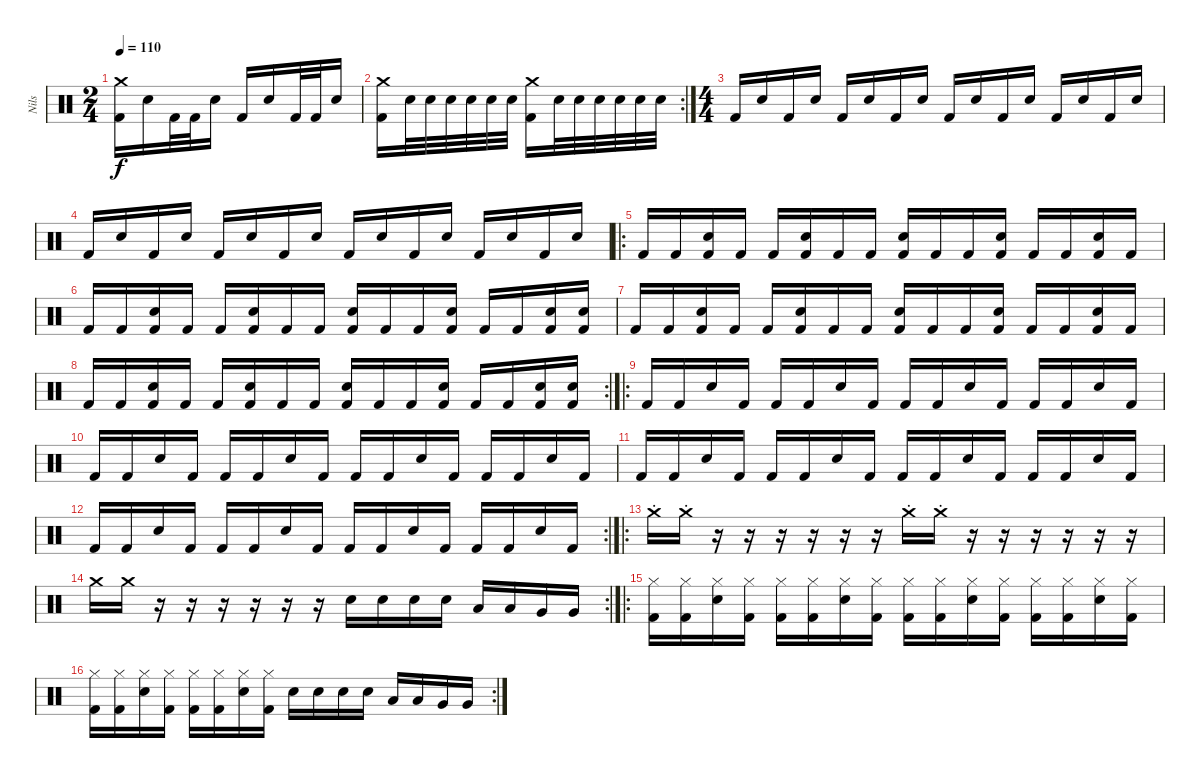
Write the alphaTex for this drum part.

\track ("Nils" "Nils") {instrument percussion}
\staff {score}
\articulation defaults
\ts (2 4)
\tempo 110
\clef neutral
\ks c
("Crash medium (hit)" "Kick (hit) 2").16{dy f} "Snare (hit) 2".16 "Kick (hit) 2".32 "Kick (hit) 2".32 "Snare (hit) 2".16 "Kick (hit) 2".16 "Snare (hit) 2".16 "Kick (hit) 2".32 "Kick (hit) 2".32 "Snare (hit) 2".16 |
\rc 2
("Crash medium (hit)" "Kick (hit) 2").16 "Snare (hit) 2".32 "Snare (hit) 2".32 "Snare (hit) 2".32 "Snare (hit) 2".32 "Snare (hit) 2".32 "Snare (hit) 2".32 ("Crash medium (hit)" "Kick (hit) 2").16 "Snare (hit) 2".32 "Snare (hit) 2".32 "Snare (hit) 2".32 "Snare (hit) 2".32 "Snare (hit) 2".32 "Snare (hit) 2".32 |
\ts (4 4)
"Kick (hit) 2".16 "Snare (hit) 2".16 "Kick (hit) 2".16 "Snare (hit) 2".16 "Kick (hit) 2".16 "Snare (hit) 2".16 "Kick (hit) 2".16 "Snare (hit) 2".16 "Kick (hit) 2".16 "Snare (hit) 2".16 "Kick (hit) 2".16 "Snare (hit) 2".16 "Kick (hit) 2".16 "Snare (hit) 2".16 "Kick (hit) 2".16 "Snare (hit) 2".16 |
"Kick (hit) 2".16 "Snare (hit) 2".16 "Kick (hit) 2".16 "Snare (hit) 2".16 "Kick (hit) 2".16 "Snare (hit) 2".16 "Kick (hit) 2".16 "Snare (hit) 2".16 "Kick (hit) 2".16 "Snare (hit) 2".16 "Kick (hit) 2".16 "Snare (hit) 2".16 "Kick (hit) 2".16 "Snare (hit) 2".16 "Kick (hit) 2".16 "Snare (hit) 2".16 |
\ro "Kick (hit) 2".16 "Kick (hit) 2".16
("Snare (hit) 2" "Kick (hit) 2").16 "Kick (hit) 2".16 "Kick (hit) 2".16 ("Snare (hit) 2" "Kick (hit) 2").16 "Kick (hit) 2".16 "Kick (hit) 2".16 ("Snare (hit) 2" "Kick (hit) 2").16 "Kick (hit) 2".16 "Kick (hit) 2".16 ("Snare (hit) 2" "Kick (hit) 2").16 "Kick (hit) 2".16 "Kick (hit) 2".16 ("Snare (hit) 2" "Kick (hit) 2").16 "Kick (hit) 2".16 |
"Kick (hit) 2".16 "Kick (hit) 2".16 ("Snare (hit) 2" "Kick (hit) 2").16 "Kick (hit) 2".16 "Kick (hit) 2".16 ("Snare (hit) 2" "Kick (hit) 2").16 "Kick (hit) 2".16 "Kick (hit) 2".16 ("Snare (hit) 2" "Kick (hit) 2").16 "Kick (hit) 2".16 "Kick (hit) 2".16 ("Snare (hit) 2" "Kick (hit) 2").16 "Kick (hit) 2".16 "Kick (hit) 2".16 ("Snare (hit) 2" "Kick (hit) 2").16 ("Snare (hit) 2" "Kick (hit) 2").16 |
"Kick (hit) 2".16 "Kick (hit) 2".16 ("Snare (hit) 2" "Kick (hit) 2").16 "Kick (hit) 2".16 "Kick (hit) 2".16 ("Snare (hit) 2" "Kick (hit) 2").16 "Kick (hit) 2".16 "Kick (hit) 2".16 ("Snare (hit) 2" "Kick (hit) 2").16 "Kick (hit) 2".16 "Kick (hit) 2".16 ("Snare (hit) 2" "Kick (hit) 2").16 "Kick (hit) 2".16 "Kick (hit) 2".16 ("Snare (hit) 2" "Kick (hit) 2").16 "Kick (hit) 2".16 |
\rc 2 "Kick (hit) 2".16 "Kick (hit) 2".16
("Snare (hit) 2" "Kick (hit) 2").16 "Kick (hit) 2".16 "Kick (hit) 2".16 ("Snare (hit) 2" "Kick (hit) 2").16 "Kick (hit) 2".16 "Kick (hit) 2".16 ("Snare (hit) 2" "Kick (hit) 2").16 "Kick (hit) 2".16 "Kick (hit) 2".16 ("Snare (hit) 2" "Kick (hit) 2").16 "Kick (hit) 2".16 "Kick (hit) 2".16 ("Snare (hit) 2" "Kick (hit) 2").16 ("Snare (hit) 2" "Kick (hit) 2").16 |
\ro "Kick (hit) 2".16 "Kick (hit) 2".16 "Snare (hit) 2".16 "Kick (hit) 2".16 "Kick (hit) 2".16 "Kick (hit) 2".16 "Snare (hit) 2".16 "Kick (hit) 2".16 "Kick (hit) 2".16 "Kick (hit) 2".16 "Snare (hit) 2".16 "Kick (hit) 2".16 "Kick (hit) 2".16 "Kick (hit) 2".16 "Snare (hit) 2".16 "Kick (hit) 2".16
|
"Kick (hit) 2".16 "Kick (hit) 2".16 "Snare (hit) 2".16 "Kick (hit) 2".16 "Kick (hit) 2".16 "Kick (hit) 2".16 "Snare (hit) 2".16 "Kick (hit) 2".16 "Kick (hit) 2".16 "Kick (hit) 2".16 "Snare (hit) 2".16 "Kick (hit) 2".16 "Kick (hit) 2".16 "Kick (hit) 2".16 "Snare (hit) 2".16 "Kick (hit) 2".16 |
"Kick (hit) 2".16 "Kick (hit) 2".16 "Snare (hit) 2".16 "Kick (hit) 2".16 "Kick (hit) 2".16 "Kick (hit) 2".16 "Snare (hit) 2".16 "Kick (hit) 2".16 "Kick (hit) 2".16 "Kick (hit) 2".16 "Snare (hit) 2".16 "Kick (hit) 2".16 "Kick (hit) 2".16 "Kick (hit) 2".16 "Snare (hit) 2".16 "Kick (hit) 2".16 |
\rc 2 "Kick (hit) 2".16 "Kick (hit) 2".16 "Snare (hit) 2".16 "Kick (hit) 2".16 "Kick (hit) 2".16 "Kick (hit) 2".16 "Snare (hit) 2".16 "Kick (hit) 2".16 "Kick (hit) 2".16 "Kick (hit) 2".16 "Snare (hit) 2".16 "Kick (hit) 2".16 "Kick (hit) 2".16 "Kick (hit) 2".16 "Snare (hit) 2".16 "Kick (hit) 2".16
|
\ro "Crash medium (hit)"{st}.16 "Crash medium (hit)"{st}.16
r.16 r.16 r.16 r.16 r.16 r.16 "Crash medium (hit)"{st}.16 "Crash medium (hit)"{st}.16 r.16 r.16 r.16 r.16 r.16 r.16 |
\rc 2 "Crash medium (hit)".16 "Crash medium (hit)".16
r.16 r.16 r.16 r.16 r.16 r.16 "Snare (hit) 2".16 "Snare (hit) 2".16 "Snare (hit) 2".16 "Snare (hit) 2".16 "Low Tom (hit)".16 "Low Tom (hit)".16 "Very Low Tom (hit)".16 "Very Low Tom (hit)".16 |
\ro
("Kick (hit) 2" "Hi-Hat (closed)").16 ("Kick (hit) 2" "Hi-Hat (closed)").16 ("Snare (hit) 2" "Hi-Hat (closed)").16 ("Kick (hit) 2" "Hi-Hat (closed)").16 ("Kick (hit) 2" "Hi-Hat (closed)").16 ("Kick (hit) 2" "Hi-Hat (closed)").16 ("Snare (hit) 2" "Hi-Hat (closed)").16 ("Kick (hit) 2" "Hi-Hat (closed)").16 ("Kick (hit) 2" "Hi-Hat (closed)").16 ("Kick (hit) 2" "Hi-Hat (closed)").16 ("Snare (hit) 2" "Hi-Hat (closed)").16 ("Kick (hit) 2" "Hi-Hat (closed)").16 ("Kick (hit) 2" "Hi-Hat (closed)").16 ("Kick (hit) 2" "Hi-Hat (closed)").16 ("Snare (hit) 2" "Hi-Hat (closed)").16 ("Kick (hit) 2" "Hi-Hat (closed)").16 |
\rc 2
("Kick (hit) 2" "Hi-Hat (closed)").16 ("Kick (hit) 2" "Hi-Hat (closed)").16 ("Snare (hit) 2" "Hi-Hat (closed)").16 ("Kick (hit) 2" "Hi-Hat (closed)").16 ("Kick (hit) 2" "Hi-Hat (closed)").16 ("Kick (hit) 2" "Hi-Hat (closed)").16 ("Snare (hit) 2" "Hi-Hat (closed)").16 ("Kick (hit) 2" "Hi-Hat (closed)").16 "Snare (hit) 2".16 "Snare (hit) 2".16 "Snare (hit) 2".16 "Snare (hit) 2".16 "Low Tom (hit)".16 "Low Tom (hit)".16 "Very Low Tom (hit)".16 "Very Low Tom (hit)".16
